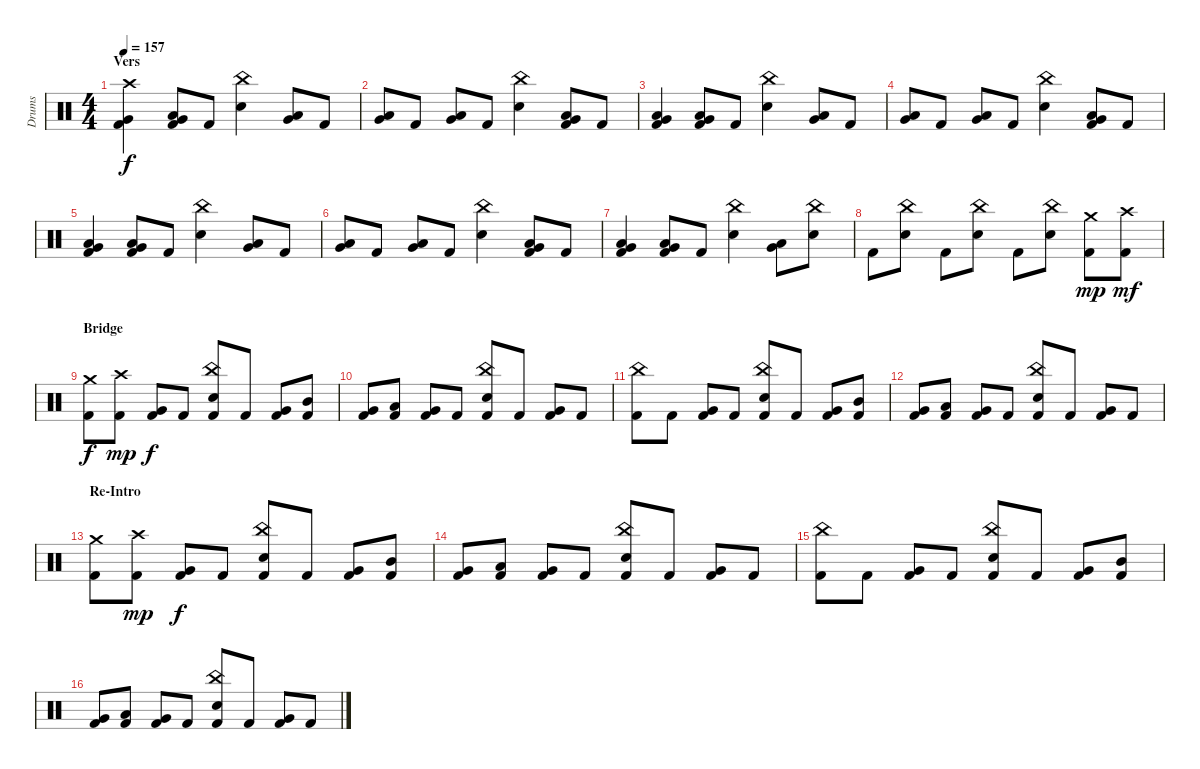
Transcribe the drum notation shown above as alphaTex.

\track ("Drums" "Drums") {instrument percussion}
\staff {score}
\articulation defaults
\ts (4 4)
\section ("" "Vers")
\tempo 157
\clef neutral
\ks c
("Crash high (hit)" "Very Low Tom (hit)" "Kick (hit) 2").4{dy f} ("Low Tom (hit)" "Very Low Tom (hit)" "Kick (hit) 2").8 "Kick (hit) 2".8 ("China (hit)" "Electric Snare (hit)").4 ("Low Tom (hit)" "Very Low Tom (hit)").8 "Kick (hit) 2".8 |
("Low Tom (hit)" "Very Low Tom (hit)").8 "Kick (hit) 2".8 ("Low Tom (hit)" "Very Low Tom (hit)").8 "Kick (hit) 2".8 ("China (hit)" "Electric Snare (hit)").4 ("Low Tom (hit)" "Very Low Tom (hit)" "Kick (hit) 2").8 "Kick (hit) 2".8 |
("Low Tom (hit)" "Very Low Tom (hit)" "Kick (hit) 2").4 ("Low Tom (hit)" "Very Low Tom (hit)" "Kick (hit) 2").8 "Kick (hit) 2".8 ("China (hit)" "Electric Snare (hit)").4 ("Low Tom (hit)" "Very Low Tom (hit)").8 "Kick (hit) 2".8 |
("Low Tom (hit)" "Very Low Tom (hit)").8 "Kick (hit) 2".8 ("Low Tom (hit)" "Very Low Tom (hit)").8 "Kick (hit) 2".8 ("China (hit)" "Electric Snare (hit)").4 ("Low Tom (hit)" "Very Low Tom (hit)" "Kick (hit) 2").8 "Kick (hit) 2".8 |
("Low Tom (hit)" "Very Low Tom (hit)" "Kick (hit) 2").4 ("Low Tom (hit)" "Very Low Tom (hit)" "Kick (hit) 2").8 "Kick (hit) 2".8 ("China (hit)" "Electric Snare (hit)").4 ("Low Tom (hit)" "Very Low Tom (hit)").8 "Kick (hit) 2".8 |
("Low Tom (hit)" "Very Low Tom (hit)").8 "Kick (hit) 2".8 ("Low Tom (hit)" "Very Low Tom (hit)").8 "Kick (hit) 2".8 ("China (hit)" "Electric Snare (hit)").4 ("Low Tom (hit)" "Very Low Tom (hit)" "Kick (hit) 2").8 "Kick (hit) 2".8 |
("Low Tom (hit)" "Very Low Tom (hit)" "Kick (hit) 2").4 ("Low Tom (hit)" "Very Low Tom (hit)" "Kick (hit) 2").8 "Kick (hit) 2".8 ("China (hit)" "Electric Snare (hit)").4 ("Low Tom (hit)" "Very Low Tom (hit)").8 ("China (hit)" "Electric Snare (hit)").8 |
"Kick (hit) 2".8 ("China (hit)" "Electric Snare (hit)").8 "Kick (hit) 2".8 ("China (hit)" "Electric Snare (hit)").8 "Kick (hit) 2".8 ("China (hit)" "Electric Snare (hit)").8 ("Crash medium (hit)" "Kick (hit) 2").8{dy mp} ("Crash high (hit)" "Kick (hit) 2").8{dy mf} |
\section ("" "Bridge")
("Crash medium (hit)" "Kick (hit) 2").8{dy f} ("Crash high (hit)" "Kick (hit) 2").8{dy mp} ("Very Low Tom (hit)" "Kick (hit) 2").8{dy f} "Kick (hit) 2".8 ("China (hit)" "Electric Snare (hit)" "Kick (hit) 2").8 "Kick (hit) 2".8 ("Very Low Tom (hit)" "Kick (hit) 2").8 ("Mid Tom (hit)" "Kick (hit) 2").8 |
("Very Low Tom (hit)" "Kick (hit) 2").8 ("Low Tom (hit)" "Kick (hit) 2").8 ("Very Low Tom (hit)" "Kick (hit) 2").8 "Kick (hit) 2".8 ("China (hit)" "Electric Snare (hit)" "Kick (hit) 2").8 "Kick (hit) 2".8 ("Very Low Tom (hit)" "Kick (hit) 2").8 "Kick (hit) 2".8 |
("China (hit)" "Kick (hit) 2").8 "Kick (hit) 2".8 ("Very Low Tom (hit)" "Kick (hit) 2").8 "Kick (hit) 2".8 ("China (hit)" "Electric Snare (hit)" "Kick (hit) 2").8 "Kick (hit) 2".8 ("Very Low Tom (hit)" "Kick (hit) 2").8 ("Mid Tom (hit)" "Kick (hit) 2").8 |
("Very Low Tom (hit)" "Kick (hit) 2").8 ("Low Tom (hit)" "Kick (hit) 2").8 ("Very Low Tom (hit)" "Kick (hit) 2").8 "Kick (hit) 2".8 ("China (hit)" "Electric Snare (hit)" "Kick (hit) 2").8 "Kick (hit) 2".8 ("Very Low Tom (hit)" "Kick (hit) 2").8 "Kick (hit) 2".8 |
\section ("" "Re-Intro")
("Crash medium (hit)" "Kick (hit) 2").8 ("Crash high (hit)" "Kick (hit) 2").8{dy mp} ("Very Low Tom (hit)" "Kick (hit) 2").8{dy f} "Kick (hit) 2".8 ("China (hit)" "Electric Snare (hit)" "Kick (hit) 2").8 "Kick (hit) 2".8 ("Very Low Tom (hit)" "Kick (hit) 2").8 ("Mid Tom (hit)" "Kick (hit) 2").8 |
("Very Low Tom (hit)" "Kick (hit) 2").8 ("Low Tom (hit)" "Kick (hit) 2").8 ("Very Low Tom (hit)" "Kick (hit) 2").8 "Kick (hit) 2".8 ("China (hit)" "Electric Snare (hit)" "Kick (hit) 2").8 "Kick (hit) 2".8 ("Very Low Tom (hit)" "Kick (hit) 2").8 "Kick (hit) 2".8 |
("China (hit)" "Kick (hit) 2").8 "Kick (hit) 2".8 ("Very Low Tom (hit)" "Kick (hit) 2").8 "Kick (hit) 2".8 ("China (hit)" "Electric Snare (hit)" "Kick (hit) 2").8 "Kick (hit) 2".8 ("Very Low Tom (hit)" "Kick (hit) 2").8 ("Mid Tom (hit)" "Kick (hit) 2").8 |
("Very Low Tom (hit)" "Kick (hit) 2").8 ("Low Tom (hit)" "Kick (hit) 2").8 ("Very Low Tom (hit)" "Kick (hit) 2").8 "Kick (hit) 2".8 ("China (hit)" "Electric Snare (hit)" "Kick (hit) 2").8 "Kick (hit) 2".8 ("Very Low Tom (hit)" "Kick (hit) 2").8 "Kick (hit) 2".8
